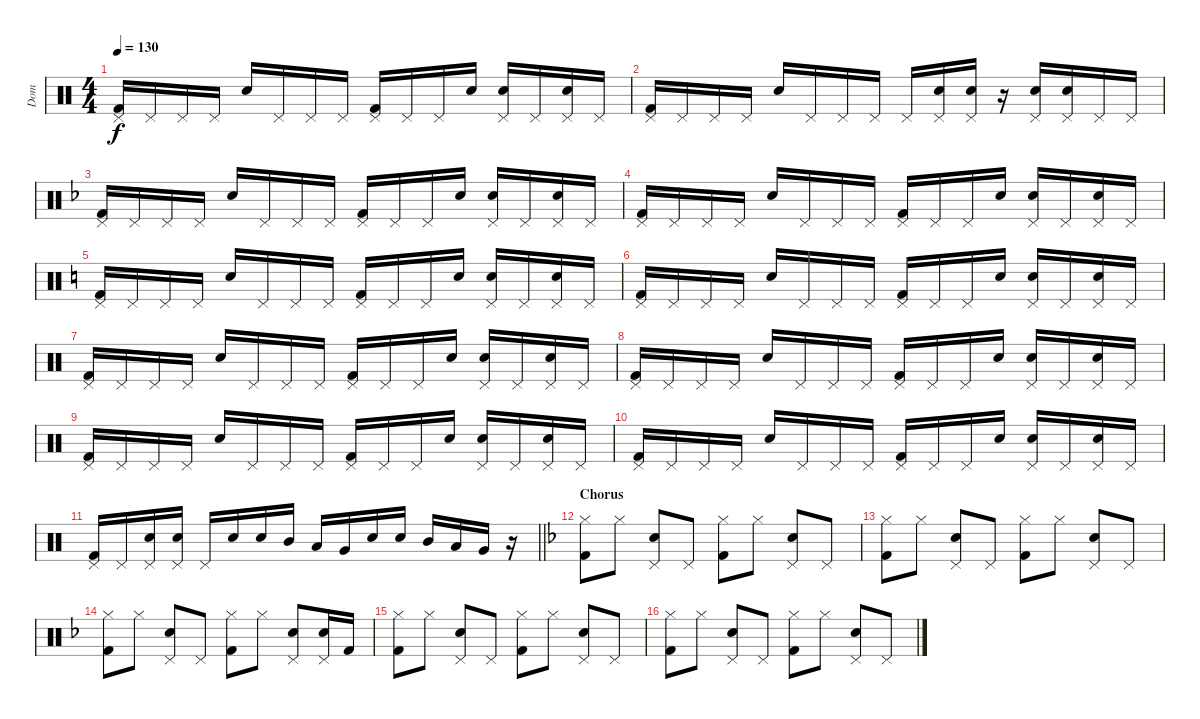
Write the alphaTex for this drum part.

\track ("Dom" "Dom") {instrument percussion}
\staff {score}
\articulation defaults
\ts (4 4)
\tempo 130
\clef neutral
\ks c
("Pedal Hi-Hat (hit)" "Kick (hit) 2").16{dy f} "Pedal Hi-Hat (hit)".16 "Pedal Hi-Hat (hit)".16 "Pedal Hi-Hat (hit)".16 "Electric Snare (hit)".16 "Pedal Hi-Hat (hit)".16 "Pedal Hi-Hat (hit)".16 "Pedal Hi-Hat (hit)".16 ("Pedal Hi-Hat (hit)" "Kick (hit) 2").16 "Pedal Hi-Hat (hit)".16 "Pedal Hi-Hat (hit)".16 "Electric Snare (hit)".16 ("Pedal Hi-Hat (hit)" "Electric Snare (hit)").16 "Pedal Hi-Hat (hit)".16 ("Pedal Hi-Hat (hit)" "Electric Snare (hit)").16 "Pedal Hi-Hat (hit)".16 |
("Pedal Hi-Hat (hit)" "Kick (hit) 2").16 "Pedal Hi-Hat (hit)".16 "Pedal Hi-Hat (hit)".16 "Pedal Hi-Hat (hit)".16 "Electric Snare (hit)".16 "Pedal Hi-Hat (hit)".16 "Pedal Hi-Hat (hit)".16 "Pedal Hi-Hat (hit)".16 "Pedal Hi-Hat (hit)".16 ("Pedal Hi-Hat (hit)" "Snare (hit) 2").16 ("Pedal Hi-Hat (hit)" "Electric Snare (hit)").16 r.16 ("Pedal Hi-Hat (hit)" "Snare (hit) 2").16 ("Pedal Hi-Hat (hit)" "Electric Snare (hit)").16 "Pedal Hi-Hat (hit)".16 "Pedal Hi-Hat (hit)".16 |
\ks f
("Pedal Hi-Hat (hit)" "Kick (hit) 2").16 "Pedal Hi-Hat (hit)".16 "Pedal Hi-Hat (hit)".16 "Pedal Hi-Hat (hit)".16 "Electric Snare (hit)".16 "Pedal Hi-Hat (hit)".16 "Pedal Hi-Hat (hit)".16 "Pedal Hi-Hat (hit)".16 ("Pedal Hi-Hat (hit)" "Kick (hit) 2").16 "Pedal Hi-Hat (hit)".16 "Pedal Hi-Hat (hit)".16 "Electric Snare (hit)".16 ("Pedal Hi-Hat (hit)" "Electric Snare (hit)").16 "Pedal Hi-Hat (hit)".16 ("Pedal Hi-Hat (hit)" "Electric Snare (hit)").16 "Pedal Hi-Hat (hit)".16 |
("Pedal Hi-Hat (hit)" "Kick (hit) 2").16 "Pedal Hi-Hat (hit)".16 "Pedal Hi-Hat (hit)".16 "Pedal Hi-Hat (hit)".16 "Electric Snare (hit)".16 "Pedal Hi-Hat (hit)".16 "Pedal Hi-Hat (hit)".16 "Pedal Hi-Hat (hit)".16 ("Pedal Hi-Hat (hit)" "Kick (hit) 2").16 "Pedal Hi-Hat (hit)".16 "Pedal Hi-Hat (hit)".16 "Electric Snare (hit)".16 ("Pedal Hi-Hat (hit)" "Electric Snare (hit)").16 "Pedal Hi-Hat (hit)".16 ("Pedal Hi-Hat (hit)" "Electric Snare (hit)").16 "Pedal Hi-Hat (hit)".16 |
\ks c
("Pedal Hi-Hat (hit)" "Kick (hit) 2").16 "Pedal Hi-Hat (hit)".16 "Pedal Hi-Hat (hit)".16 "Pedal Hi-Hat (hit)".16 "Electric Snare (hit)".16 "Pedal Hi-Hat (hit)".16 "Pedal Hi-Hat (hit)".16 "Pedal Hi-Hat (hit)".16 ("Pedal Hi-Hat (hit)" "Kick (hit) 2").16 "Pedal Hi-Hat (hit)".16 "Pedal Hi-Hat (hit)".16 "Electric Snare (hit)".16 ("Pedal Hi-Hat (hit)" "Electric Snare (hit)").16 "Pedal Hi-Hat (hit)".16 ("Pedal Hi-Hat (hit)" "Electric Snare (hit)").16 "Pedal Hi-Hat (hit)".16 |
("Pedal Hi-Hat (hit)" "Kick (hit) 2").16 "Pedal Hi-Hat (hit)".16 "Pedal Hi-Hat (hit)".16 "Pedal Hi-Hat (hit)".16 "Electric Snare (hit)".16 "Pedal Hi-Hat (hit)".16 "Pedal Hi-Hat (hit)".16 "Pedal Hi-Hat (hit)".16 ("Pedal Hi-Hat (hit)" "Kick (hit) 2").16 "Pedal Hi-Hat (hit)".16 "Pedal Hi-Hat (hit)".16 "Electric Snare (hit)".16 ("Pedal Hi-Hat (hit)" "Electric Snare (hit)").16 "Pedal Hi-Hat (hit)".16 ("Pedal Hi-Hat (hit)" "Electric Snare (hit)").16 "Pedal Hi-Hat (hit)".16 |
("Pedal Hi-Hat (hit)" "Kick (hit) 2").16 "Pedal Hi-Hat (hit)".16 "Pedal Hi-Hat (hit)".16 "Pedal Hi-Hat (hit)".16 "Electric Snare (hit)".16 "Pedal Hi-Hat (hit)".16 "Pedal Hi-Hat (hit)".16 "Pedal Hi-Hat (hit)".16 ("Pedal Hi-Hat (hit)" "Kick (hit) 2").16 "Pedal Hi-Hat (hit)".16 "Pedal Hi-Hat (hit)".16 "Electric Snare (hit)".16 ("Pedal Hi-Hat (hit)" "Electric Snare (hit)").16 "Pedal Hi-Hat (hit)".16 ("Pedal Hi-Hat (hit)" "Electric Snare (hit)").16 "Pedal Hi-Hat (hit)".16 |
("Pedal Hi-Hat (hit)" "Kick (hit) 2").16 "Pedal Hi-Hat (hit)".16 "Pedal Hi-Hat (hit)".16 "Pedal Hi-Hat (hit)".16 "Electric Snare (hit)".16 "Pedal Hi-Hat (hit)".16 "Pedal Hi-Hat (hit)".16 "Pedal Hi-Hat (hit)".16 ("Pedal Hi-Hat (hit)" "Kick (hit) 2").16 "Pedal Hi-Hat (hit)".16 "Pedal Hi-Hat (hit)".16 "Electric Snare (hit)".16 ("Pedal Hi-Hat (hit)" "Electric Snare (hit)").16 "Pedal Hi-Hat (hit)".16 ("Pedal Hi-Hat (hit)" "Electric Snare (hit)").16 "Pedal Hi-Hat (hit)".16 |
("Pedal Hi-Hat (hit)" "Kick (hit) 2").16 "Pedal Hi-Hat (hit)".16 "Pedal Hi-Hat (hit)".16 "Pedal Hi-Hat (hit)".16 "Electric Snare (hit)".16 "Pedal Hi-Hat (hit)".16 "Pedal Hi-Hat (hit)".16 "Pedal Hi-Hat (hit)".16 ("Pedal Hi-Hat (hit)" "Kick (hit) 2").16 "Pedal Hi-Hat (hit)".16 "Pedal Hi-Hat (hit)".16 "Electric Snare (hit)".16 ("Pedal Hi-Hat (hit)" "Electric Snare (hit)").16 "Pedal Hi-Hat (hit)".16 ("Pedal Hi-Hat (hit)" "Electric Snare (hit)").16 "Pedal Hi-Hat (hit)".16 |
("Pedal Hi-Hat (hit)" "Kick (hit) 2").16 "Pedal Hi-Hat (hit)".16 "Pedal Hi-Hat (hit)".16 "Pedal Hi-Hat (hit)".16 "Electric Snare (hit)".16 "Pedal Hi-Hat (hit)".16 "Pedal Hi-Hat (hit)".16 "Pedal Hi-Hat (hit)".16 ("Pedal Hi-Hat (hit)" "Kick (hit) 2").16 "Pedal Hi-Hat (hit)".16 "Pedal Hi-Hat (hit)".16 "Electric Snare (hit)".16 ("Pedal Hi-Hat (hit)" "Electric Snare (hit)").16 "Pedal Hi-Hat (hit)".16 ("Pedal Hi-Hat (hit)" "Electric Snare (hit)").16 "Pedal Hi-Hat (hit)".16 |
\barLineRight lightlight
("Pedal Hi-Hat (hit)" "Kick (hit) 2").16 "Pedal Hi-Hat (hit)".16 ("Pedal Hi-Hat (hit)" "Snare (hit) 2").16 ("Pedal Hi-Hat (hit)" "Electric Snare (hit)").16 "Pedal Hi-Hat (hit)".16 "Snare (hit) 2".16 "Electric Snare (hit)".16 "Mid Tom (hit)".16 "Low Tom (hit)".16 "Very Low Tom (hit)".16 "Snare (hit) 2".16 "Electric Snare (hit)".16 "Mid Tom (hit)".16 "Low Tom (hit)".16 "Very Low Tom (hit)".16 r.16 |
\section ("" "Chorus")
\ks f
("Hi-Hat (closed)" "Kick (hit) 2").8 "Hi-Hat (closed)".8 ("Pedal Hi-Hat (hit)" "Electric Snare (hit)").8 "Pedal Hi-Hat (hit)".8 ("Hi-Hat (closed)" "Kick (hit) 2").8 "Hi-Hat (closed)".8 ("Pedal Hi-Hat (hit)" "Electric Snare (hit)").8 "Pedal Hi-Hat (hit)".8 |
("Hi-Hat (closed)" "Kick (hit) 2").8 "Hi-Hat (closed)".8 ("Pedal Hi-Hat (hit)" "Electric Snare (hit)").8 "Pedal Hi-Hat (hit)".8 ("Hi-Hat (closed)" "Kick (hit) 2").8 "Hi-Hat (closed)".8 ("Pedal Hi-Hat (hit)" "Electric Snare (hit)").8 "Pedal Hi-Hat (hit)".8 |
("Hi-Hat (closed)" "Kick (hit) 2").8 "Hi-Hat (closed)".8 ("Pedal Hi-Hat (hit)" "Electric Snare (hit)").8 "Pedal Hi-Hat (hit)".8 ("Hi-Hat (closed)" "Kick (hit) 2").8 "Hi-Hat (closed)".8 ("Pedal Hi-Hat (hit)" "Electric Snare (hit)").8 ("Pedal Hi-Hat (hit)" "Electric Snare (hit)").16 "Kick (hit) 2".16 |
("Hi-Hat (closed)" "Kick (hit) 2").8 "Hi-Hat (closed)".8 ("Pedal Hi-Hat (hit)" "Electric Snare (hit)").8 "Pedal Hi-Hat (hit)".8 ("Hi-Hat (closed)" "Kick (hit) 2").8 "Hi-Hat (closed)".8 ("Pedal Hi-Hat (hit)" "Electric Snare (hit)").8 "Pedal Hi-Hat (hit)".8 |
("Hi-Hat (closed)" "Kick (hit) 2").8 "Hi-Hat (closed)".8 ("Pedal Hi-Hat (hit)" "Electric Snare (hit)").8 "Pedal Hi-Hat (hit)".8 ("Hi-Hat (closed)" "Kick (hit) 2").8 "Hi-Hat (closed)".8 ("Pedal Hi-Hat (hit)" "Electric Snare (hit)").8 "Pedal Hi-Hat (hit)".8
